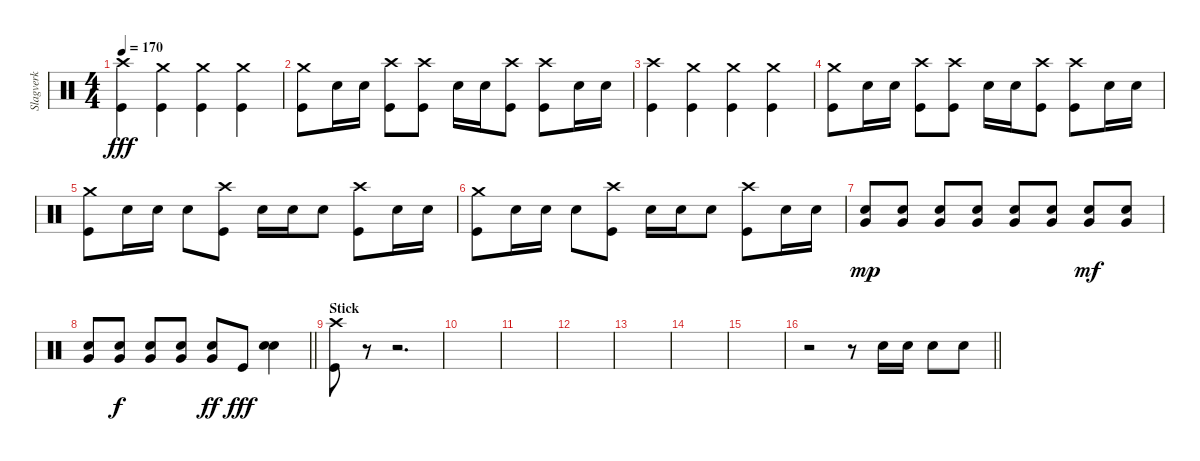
\track ("Slagverk" "Slagverk") {instrument percussion}
\staff {score}
\articulation defaults
\ts (4 4)
\tempo 170
\clef neutral
\ks c
("Crash high (hit)" "Kick (hit)").4{dy fff} ("Crash medium (hit)" "Kick (hit)").4 ("Crash medium (hit)" "Kick (hit)").4 ("Crash medium (hit)" "Kick (hit)").4 |
("Crash medium (hit)" "Kick (hit)").8 "Electric Snare (hit)".16 "Electric Snare (hit)".16 ("Crash high (hit)" "Kick (hit)").8 ("Crash high (hit)" "Kick (hit)").8 "Electric Snare (hit)".16 "Electric Snare (hit)".16 ("Crash high (hit)" "Kick (hit)").8 ("Crash high (hit)" "Kick (hit)").8 "Electric Snare (hit)".16 "Electric Snare (hit)".16 |
("Crash high (hit)" "Kick (hit)").4 ("Crash medium (hit)" "Kick (hit)").4 ("Crash medium (hit)" "Kick (hit)").4 ("Crash medium (hit)" "Kick (hit)").4 |
("Crash medium (hit)" "Kick (hit)").8 "Electric Snare (hit)".16 "Electric Snare (hit)".16 ("Crash high (hit)" "Kick (hit)").8 ("Crash high (hit)" "Kick (hit)").8 "Electric Snare (hit)".16 "Electric Snare (hit)".16 ("Crash high (hit)" "Kick (hit)").8 ("Crash high (hit)" "Kick (hit)").8 "Electric Snare (hit)".16 "Electric Snare (hit)".16 |
("Crash medium (hit)" "Kick (hit)").8 "Electric Snare (hit)".16 "Electric Snare (hit)".16 "Electric Snare (hit)".8 ("Crash high (hit)" "Kick (hit)").8 "Electric Snare (hit)".16 "Electric Snare (hit)".16 "Electric Snare (hit)".8 ("Crash high (hit)" "Kick (hit)").8 "Electric Snare (hit)".16 "Electric Snare (hit)".16 |
("Crash medium (hit)" "Kick (hit)").8 "Electric Snare (hit)".16 "Electric Snare (hit)".16 "Electric Snare (hit)".8 ("Crash high (hit)" "Kick (hit)").8 "Electric Snare (hit)".16 "Electric Snare (hit)".16 "Electric Snare (hit)".8 ("Crash high (hit)" "Kick (hit)").8 "Electric Snare (hit)".16 "Electric Snare (hit)".16 |
("Very Low Tom (hit)" "Electric Snare (hit)").8{dy mp} ("Very Low Tom (hit)" "Electric Snare (hit)").8 ("Very Low Tom (hit)" "Electric Snare (hit)").8 ("Very Low Tom (hit)" "Electric Snare (hit)").8 ("Very Low Tom (hit)" "Electric Snare (hit)").8 ("Very Low Tom (hit)" "Electric Snare (hit)").8 ("Very Low Tom (hit)" "Electric Snare (hit)").8{dy mf} ("Very Low Tom (hit)" "Electric Snare (hit)").8 |
\barLineRight lightlight
("Very Low Tom (hit)" "Electric Snare (hit)").8 ("Very Low Tom (hit)" "Electric Snare (hit)").8{dy f} ("Very Low Tom (hit)" "Electric Snare (hit)").8 ("Very Low Tom (hit)" "Electric Snare (hit)").8 ("Very Low Tom (hit)" "Electric Snare (hit)").8{dy ff} "Kick (hit)".8{dy fff} ("Electric Snare (hit)" "Electric Snare (hit)").4 |
\section ("" "Stick")
("Crash high (hit)" "Kick (hit)").8 r.8 r.2{d} |
|
|
|
|
|
|
\barLineRight lightlight
r.2 r.8 "Electric Snare (hit)".16 "Electric Snare (hit)".16 "Electric Snare (hit)".8 "Electric Snare (hit)".8
